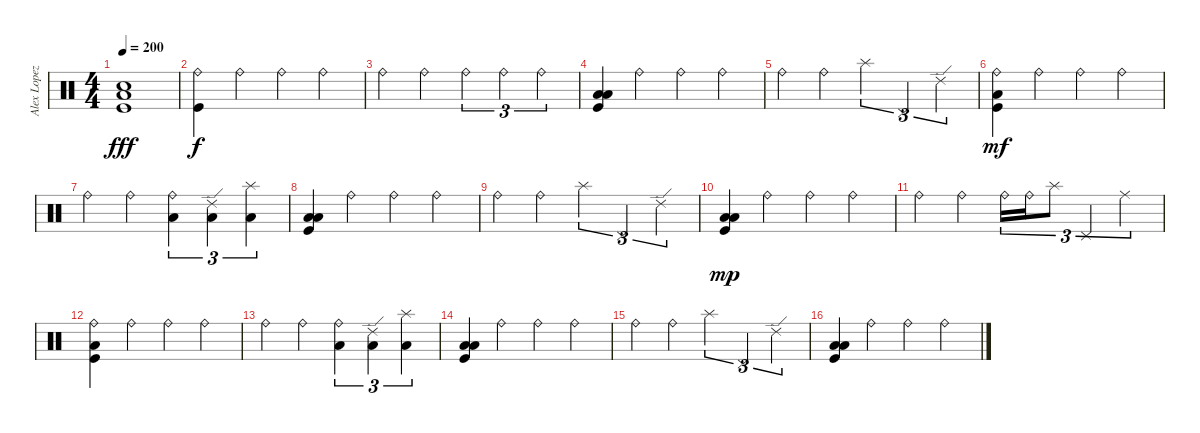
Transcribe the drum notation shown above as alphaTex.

\track ("Alex Lopez" "Alex Lopez") {instrument percussion}
\staff {score}
\articulation defaults
\ts (4 4)
\tempo 200
\clef neutral
\ks c
("Low Floor Tom (hit)" "Snare (hit) 2" "Kick (hit)").1{dy fff} |
("Ride (bell)" "Kick (hit)").4{dy f} "Ride (bell)".4 "Ride (bell)".4 "Ride (bell)".4 |
"Ride (bell)".4 "Ride (bell)".4 "Ride (bell)".4{tu (3 2)} "Ride (bell)".4{tu (3 2)} "Ride (bell)".4{tu (3 2)} |
("Low Tom (hit)" "Low Floor Tom (hit)" "Kick (hit)").4 "Ride (bell)".4 "Ride (bell)".4 "Ride (bell)".4 |
"Ride (bell)".4 "Ride (bell)".4 "Splash (hit)".4{tu (3 2)} "Pedal Hi-Hat (hit)".4{tu (3 2)} "Ride (edge) 2".4{tu (3 2)} |
("Ride (bell)" "Low Floor Tom (hit)" "Kick (hit)").4{dy mf} "Ride (bell)".4 "Ride (bell)".4 "Ride (bell)".4 |
"Ride (bell)".4 "Ride (bell)".4 ("Ride (bell)" "Low Floor Tom (hit)").4{tu (3 2)} ("Ride (edge) 2" "Low Floor Tom (hit)").4{tu (3 2)} ("Splash (hit)" "Low Floor Tom (hit)").4{tu (3 2)} |
("Low Tom (hit)" "Low Floor Tom (hit)" "Kick (hit)").4 "Ride (bell)".4 "Ride (bell)".4 "Ride (bell)".4 |
"Ride (bell)".4 "Ride (bell)".4 "Splash (hit)".4{tu (3 2)} "Pedal Hi-Hat (hit)".4{tu (3 2)} "Ride (edge) 2".4{tu (3 2)} |
("Low Tom (hit)" "Low Floor Tom (hit)" "Kick (hit)").4{dy mp} "Ride (bell)".4 "Ride (bell)".4 "Ride (bell)".4 |
"Ride (bell)".4 "Ride (bell)".4 "Ride (bell)".16{tu (3 2)} "Ride (bell)".16{tu (3 2)} "Splash (hit)".8{tu (3 2)} "Pedal Hi-Hat (hit)".4{tu (3 2)} "Ride (middle)".4{tu (3 2)} |
("Ride (bell)" "Low Floor Tom (hit)" "Kick (hit)").4 "Ride (bell)".4 "Ride (bell)".4 "Ride (bell)".4 |
"Ride (bell)".4 "Ride (bell)".4 ("Ride (bell)" "Low Floor Tom (hit)").4{tu (3 2)} ("Ride (edge) 2" "Low Floor Tom (hit)").4{tu (3 2)} ("Splash (hit)" "Low Floor Tom (hit)").4{tu (3 2)} |
("Low Tom (hit)" "Low Floor Tom (hit)" "Kick (hit)").4 "Ride (bell)".4 "Ride (bell)".4 "Ride (bell)".4 |
"Ride (bell)".4 "Ride (bell)".4 "Splash (hit)".4{tu (3 2)} "Pedal Hi-Hat (hit)".4{tu (3 2)} "Ride (edge) 2".4{tu (3 2)} |
("Low Tom (hit)" "Low Floor Tom (hit)" "Kick (hit)").4 "Ride (bell)".4 "Ride (bell)".4 "Ride (bell)".4
